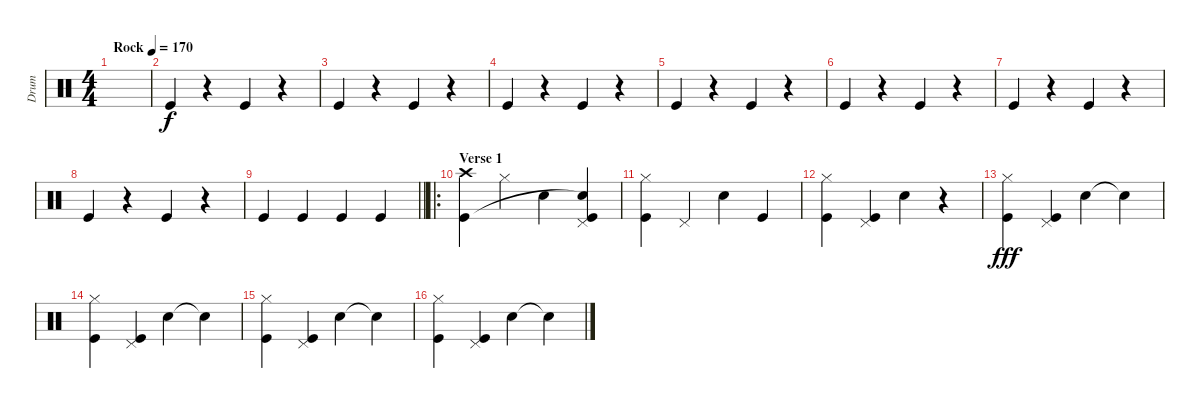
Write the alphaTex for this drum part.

\track ("Drum" "Drum") {instrument percussion}
\staff {score}
\articulation defaults
\ts (4 4)
\tempo (170 "Rock")
\clef neutral
\ks c
|
"Kick (hit)".4 r.4 "Kick (hit)".4 r.4 |
"Kick (hit)".4 r.4 "Kick (hit)".4 r.4 |
"Kick (hit)".4 r.4 "Kick (hit)".4 r.4 |
"Kick (hit)".4 r.4 "Kick (hit)".4 r.4 |
"Kick (hit)".4 r.4 "Kick (hit)".4 r.4 |
"Kick (hit)".4 r.4 "Kick (hit)".4 r.4 |
"Kick (hit)".4 r.4 "Kick (hit)".4 r.4 |
\barLineRight lightlight "Kick (hit)".4 "Kick (hit)".4 "Kick (hit)".4 "Kick (hit)".4
|
\ro
\section ("" "Verse 1")
("Crash high (hit)" "Kick (hit)").4 "Hi-Hat (closed)".4 "Snare (hit) 2".4 ("Pedal Hi-Hat (hit)" "Snare (hit)"{t} "Kick (hit)").4 |
("Hi-Hat (closed)" "Kick (hit)").4 "Pedal Hi-Hat (hit)".4 "Snare (hit) 2".4 "Kick (hit)".4 |
("Hi-Hat (closed)" "Kick (hit)").4 ("Pedal Hi-Hat (hit)" "Kick (hit)").4 "Snare (hit) 2".4 r.4 |
("Hi-Hat (closed)" "Kick (hit)").4{dy fff} ("Pedal Hi-Hat (hit)" "Kick (hit)").4 "Snare (hit) 2".4 "Snare (hit)"{t}.4 |
("Hi-Hat (closed)" "Kick (hit)").4 ("Pedal Hi-Hat (hit)" "Kick (hit)").4 "Snare (hit) 2".4 "Snare (hit)"{t}.4 |
("Hi-Hat (closed)" "Kick (hit)").4 ("Pedal Hi-Hat (hit)" "Kick (hit)").4 "Snare (hit) 2".4 "Snare (hit)"{t}.4 |
("Hi-Hat (closed)" "Kick (hit)").4 ("Pedal Hi-Hat (hit)" "Kick (hit)").4 "Snare (hit) 2".4 "Snare (hit)"{t}.4
